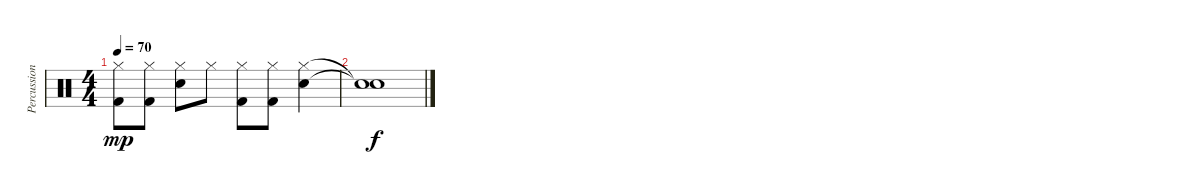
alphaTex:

\track ("Percussions" "Percussion") {instrument percussion}
\staff {score}
\articulation defaults
\ts (4 4)
\tempo 70
\clef neutral
\ks c
("Kick (hit) 2" "Hi-Hat (closed)").8{dy mp} ("Kick (hit) 2" "Hi-Hat (closed)").8 ("Electric Snare (hit)" "Hi-Hat (closed)").8 "Hi-Hat (closed)".8 ("Kick (hit) 2" "Hi-Hat (closed)").8 ("Kick (hit) 2" "Hi-Hat (closed)").8 ("Electric Snare (hit)" "Hi-Hat (closed)").4 |
("Snare (hit)"{t} "Snare (hit)"{t}).1{dy f}
